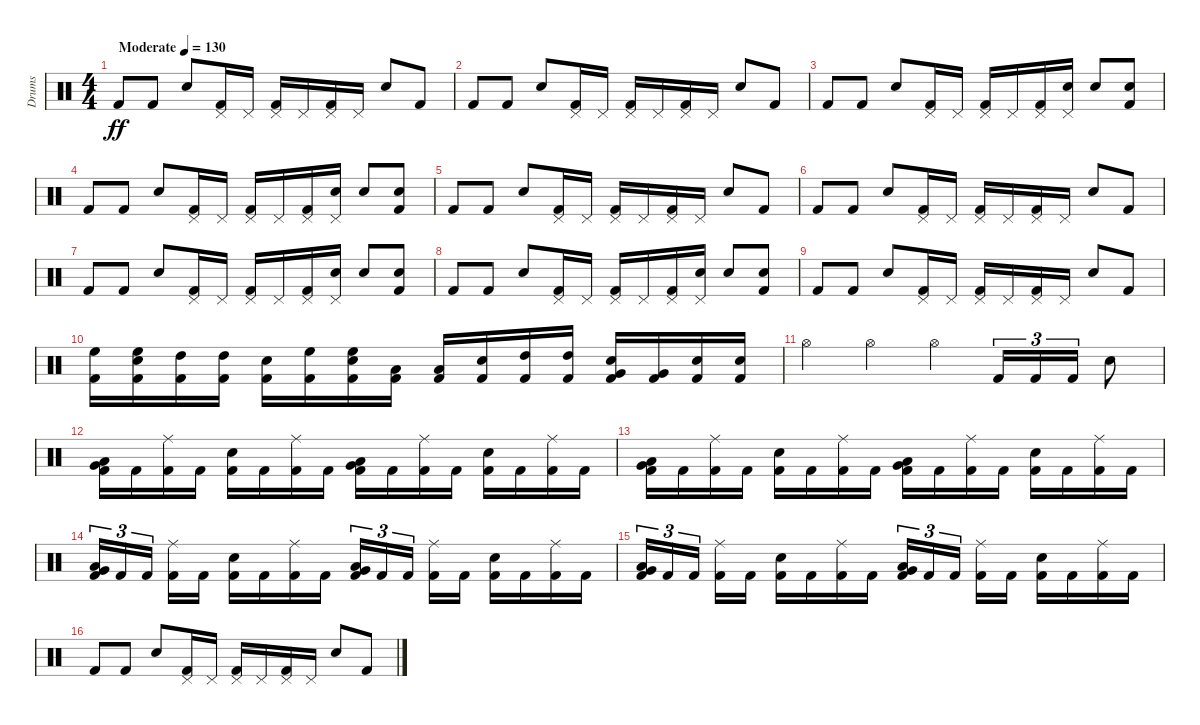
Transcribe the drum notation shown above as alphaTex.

\track ("Drums" "Drums") {instrument percussion}
\staff {score}
\articulation defaults
\ts (4 4)
\tempo (130 "Moderate")
\clef neutral
\ks c "Kick (hit) 2".8{dy ff} "Kick (hit) 2".8 "Snare (hit) 2".8
("Pedal Hi-Hat (hit)" "Kick (hit) 2").16 "Pedal Hi-Hat (hit)".16 ("Pedal Hi-Hat (hit)" "Kick (hit) 2").16 "Pedal Hi-Hat (hit)".16 ("Pedal Hi-Hat (hit)" "Kick (hit) 2").16 "Pedal Hi-Hat (hit)".16 "Snare (hit) 2".8 "Kick (hit) 2".8 |
"Kick (hit) 2".8 "Kick (hit) 2".8 "Snare (hit) 2".8 ("Pedal Hi-Hat (hit)" "Kick (hit) 2").16 "Pedal Hi-Hat (hit)".16 ("Pedal Hi-Hat (hit)" "Kick (hit) 2").16 "Pedal Hi-Hat (hit)".16 ("Pedal Hi-Hat (hit)" "Kick (hit) 2").16 "Pedal Hi-Hat (hit)".16 "Snare (hit) 2".8 "Kick (hit) 2".8 |
"Kick (hit) 2".8 "Kick (hit) 2".8 "Snare (hit) 2".8 ("Pedal Hi-Hat (hit)" "Kick (hit) 2").16 "Pedal Hi-Hat (hit)".16 ("Pedal Hi-Hat (hit)" "Kick (hit) 2").16 "Pedal Hi-Hat (hit)".16 ("Pedal Hi-Hat (hit)" "Kick (hit) 2").16 ("Pedal Hi-Hat (hit)" "Snare (hit) 2").16 "Snare (hit) 2".8 ("Snare (hit) 2" "Kick (hit) 2").8 |
"Kick (hit) 2".8 "Kick (hit) 2".8 "Snare (hit) 2".8 ("Pedal Hi-Hat (hit)" "Kick (hit) 2").16 "Pedal Hi-Hat (hit)".16 ("Pedal Hi-Hat (hit)" "Kick (hit) 2").16 "Pedal Hi-Hat (hit)".16 ("Pedal Hi-Hat (hit)" "Kick (hit) 2").16 ("Pedal Hi-Hat (hit)" "Snare (hit) 2").16 "Snare (hit) 2".8 ("Snare (hit) 2" "Kick (hit) 2").8 |
"Kick (hit) 2".8 "Kick (hit) 2".8 "Snare (hit) 2".8 ("Pedal Hi-Hat (hit)" "Kick (hit) 2").16 "Pedal Hi-Hat (hit)".16 ("Pedal Hi-Hat (hit)" "Kick (hit) 2").16 "Pedal Hi-Hat (hit)".16 ("Pedal Hi-Hat (hit)" "Kick (hit) 2").16 "Pedal Hi-Hat (hit)".16 "Snare (hit) 2".8 "Kick (hit) 2".8 |
"Kick (hit) 2".8 "Kick (hit) 2".8 "Snare (hit) 2".8 ("Pedal Hi-Hat (hit)" "Kick (hit) 2").16 "Pedal Hi-Hat (hit)".16 ("Pedal Hi-Hat (hit)" "Kick (hit) 2").16 "Pedal Hi-Hat (hit)".16 ("Pedal Hi-Hat (hit)" "Kick (hit) 2").16 "Pedal Hi-Hat (hit)".16 "Snare (hit) 2".8 "Kick (hit) 2".8 |
"Kick (hit) 2".8 "Kick (hit) 2".8 "Snare (hit) 2".8 ("Pedal Hi-Hat (hit)" "Kick (hit) 2").16 "Pedal Hi-Hat (hit)".16 ("Pedal Hi-Hat (hit)" "Kick (hit) 2").16 "Pedal Hi-Hat (hit)".16 ("Pedal Hi-Hat (hit)" "Kick (hit) 2").16 ("Pedal Hi-Hat (hit)" "Snare (hit) 2").16 "Snare (hit) 2".8 ("Snare (hit) 2" "Kick (hit) 2").8 |
"Kick (hit) 2".8 "Kick (hit) 2".8 "Snare (hit) 2".8 ("Pedal Hi-Hat (hit)" "Kick (hit) 2").16 "Pedal Hi-Hat (hit)".16 ("Pedal Hi-Hat (hit)" "Kick (hit) 2").16 "Pedal Hi-Hat (hit)".16 ("Pedal Hi-Hat (hit)" "Kick (hit) 2").16 ("Pedal Hi-Hat (hit)" "Snare (hit) 2").16 "Snare (hit) 2".8 ("Snare (hit) 2" "Kick (hit) 2").8 |
"Kick (hit) 2".8 "Kick (hit) 2".8 "Snare (hit) 2".8 ("Pedal Hi-Hat (hit)" "Kick (hit) 2").16 "Pedal Hi-Hat (hit)".16 ("Pedal Hi-Hat (hit)" "Kick (hit) 2").16 "Pedal Hi-Hat (hit)".16 ("Pedal Hi-Hat (hit)" "Kick (hit) 2").16 "Pedal Hi-Hat (hit)".16 "Snare (hit) 2".8 "Kick (hit) 2".8 |
("High Floor Tom (hit)" "Kick (hit) 2").16 ("High Floor Tom (hit)" "Snare (hit) 2" "Kick (hit) 2").16 ("High Tom (hit)" "Kick (hit) 2").16 ("High Tom (hit)" "Kick (hit) 2").16 ("Snare (hit) 2" "Kick (hit) 2").16 ("High Floor Tom (hit)" "Kick (hit) 2").16 ("High Floor Tom (hit)" "Snare (hit) 2" "Kick (hit) 2").16 ("Low Tom (hit)" "Kick (hit) 2").16 ("Low Tom (hit)" "Kick (hit) 2").16 ("Snare (hit) 2" "Kick (hit) 2").16 ("High Tom (hit)" "Kick (hit) 2").16 ("High Tom (hit)" "Kick (hit) 2").16 ("Very Low Tom (hit)" "Snare (hit) 2" "Kick (hit) 2").16 ("Very Low Tom (hit)" "Kick (hit) 2").16 ("Snare (hit) 2" "Kick (hit) 2").16 ("Snare (hit) 2" "Kick (hit) 2").16 |
"Hi-Hat (open)".4 "Hi-Hat (open)".4 "Hi-Hat (open)".4 "Kick (hit) 2".16{tu (3 2)} "Kick (hit) 2".16{tu (3 2)} "Kick (hit) 2".16{tu (3 2)} "Snare (hit) 2".8 |
("Low Tom (hit)" "Very Low Tom (hit)" "Kick (hit) 2").16 "Kick (hit) 2".16 ("Ride (middle)" "Kick (hit) 2").16 "Kick (hit) 2".16 ("Snare (hit) 2" "Kick (hit) 2").16 "Kick (hit) 2".16 ("Ride (middle)" "Kick (hit) 2").16 "Kick (hit) 2".16 ("Low Tom (hit)" "Very Low Tom (hit)" "Kick (hit) 2").16 "Kick (hit) 2".16 ("Ride (middle)" "Kick (hit) 2").16 "Kick (hit) 2".16 ("Snare (hit) 2" "Kick (hit) 2").16 "Kick (hit) 2".16 ("Ride (middle)" "Kick (hit) 2").16 "Kick (hit) 2".16 |
("Low Tom (hit)" "Very Low Tom (hit)" "Kick (hit) 2").16 "Kick (hit) 2".16 ("Ride (middle)" "Kick (hit) 2").16 "Kick (hit) 2".16 ("Snare (hit) 2" "Kick (hit) 2").16 "Kick (hit) 2".16 ("Ride (middle)" "Kick (hit) 2").16 "Kick (hit) 2".16 ("Low Tom (hit)" "Very Low Tom (hit)" "Kick (hit) 2").16 "Kick (hit) 2".16 ("Ride (middle)" "Kick (hit) 2").16 "Kick (hit) 2".16 ("Snare (hit) 2" "Kick (hit) 2").16 "Kick (hit) 2".16 ("Ride (middle)" "Kick (hit) 2").16 "Kick (hit) 2".16 |
("Low Tom (hit)" "Very Low Tom (hit)" "Kick (hit) 2").16{tu (3 2)} "Kick (hit) 2".16{tu (3 2)} "Kick (hit) 2".16{tu (3 2) beam splitsecondary} ("Ride (middle)" "Kick (hit) 2").16 "Kick (hit) 2".16 ("Snare (hit) 2" "Kick (hit) 2").16 "Kick (hit) 2".16 ("Ride (middle)" "Kick (hit) 2").16 "Kick (hit) 2".16 ("Low Tom (hit)" "Very Low Tom (hit)" "Kick (hit) 2").16{tu (3 2)} "Kick (hit) 2".16{tu (3 2)} "Kick (hit) 2".16{tu (3 2) beam splitsecondary} ("Ride (middle)" "Kick (hit) 2").16 "Kick (hit) 2".16 ("Snare (hit) 2" "Kick (hit) 2").16 "Kick (hit) 2".16 ("Ride (middle)" "Kick (hit) 2").16 "Kick (hit) 2".16 |
("Low Tom (hit)" "Very Low Tom (hit)" "Kick (hit) 2").16{tu (3 2)} "Kick (hit) 2".16{tu (3 2)} "Kick (hit) 2".16{tu (3 2) beam splitsecondary} ("Ride (middle)" "Kick (hit) 2").16 "Kick (hit) 2".16 ("Snare (hit) 2" "Kick (hit) 2").16 "Kick (hit) 2".16 ("Ride (middle)" "Kick (hit) 2").16 "Kick (hit) 2".16 ("Low Tom (hit)" "Very Low Tom (hit)" "Kick (hit) 2").16{tu (3 2)} "Kick (hit) 2".16{tu (3 2)} "Kick (hit) 2".16{tu (3 2) beam splitsecondary} ("Ride (middle)" "Kick (hit) 2").16 "Kick (hit) 2".16 ("Snare (hit) 2" "Kick (hit) 2").16 "Kick (hit) 2".16 ("Ride (middle)" "Kick (hit) 2").16 "Kick (hit) 2".16 |
"Kick (hit) 2".8 "Kick (hit) 2".8 "Snare (hit) 2".8 ("Pedal Hi-Hat (hit)" "Kick (hit) 2").16 "Pedal Hi-Hat (hit)".16 ("Pedal Hi-Hat (hit)" "Kick (hit) 2").16 "Pedal Hi-Hat (hit)".16 ("Pedal Hi-Hat (hit)" "Kick (hit) 2").16 "Pedal Hi-Hat (hit)".16 "Snare (hit) 2".8 "Kick (hit) 2".8
